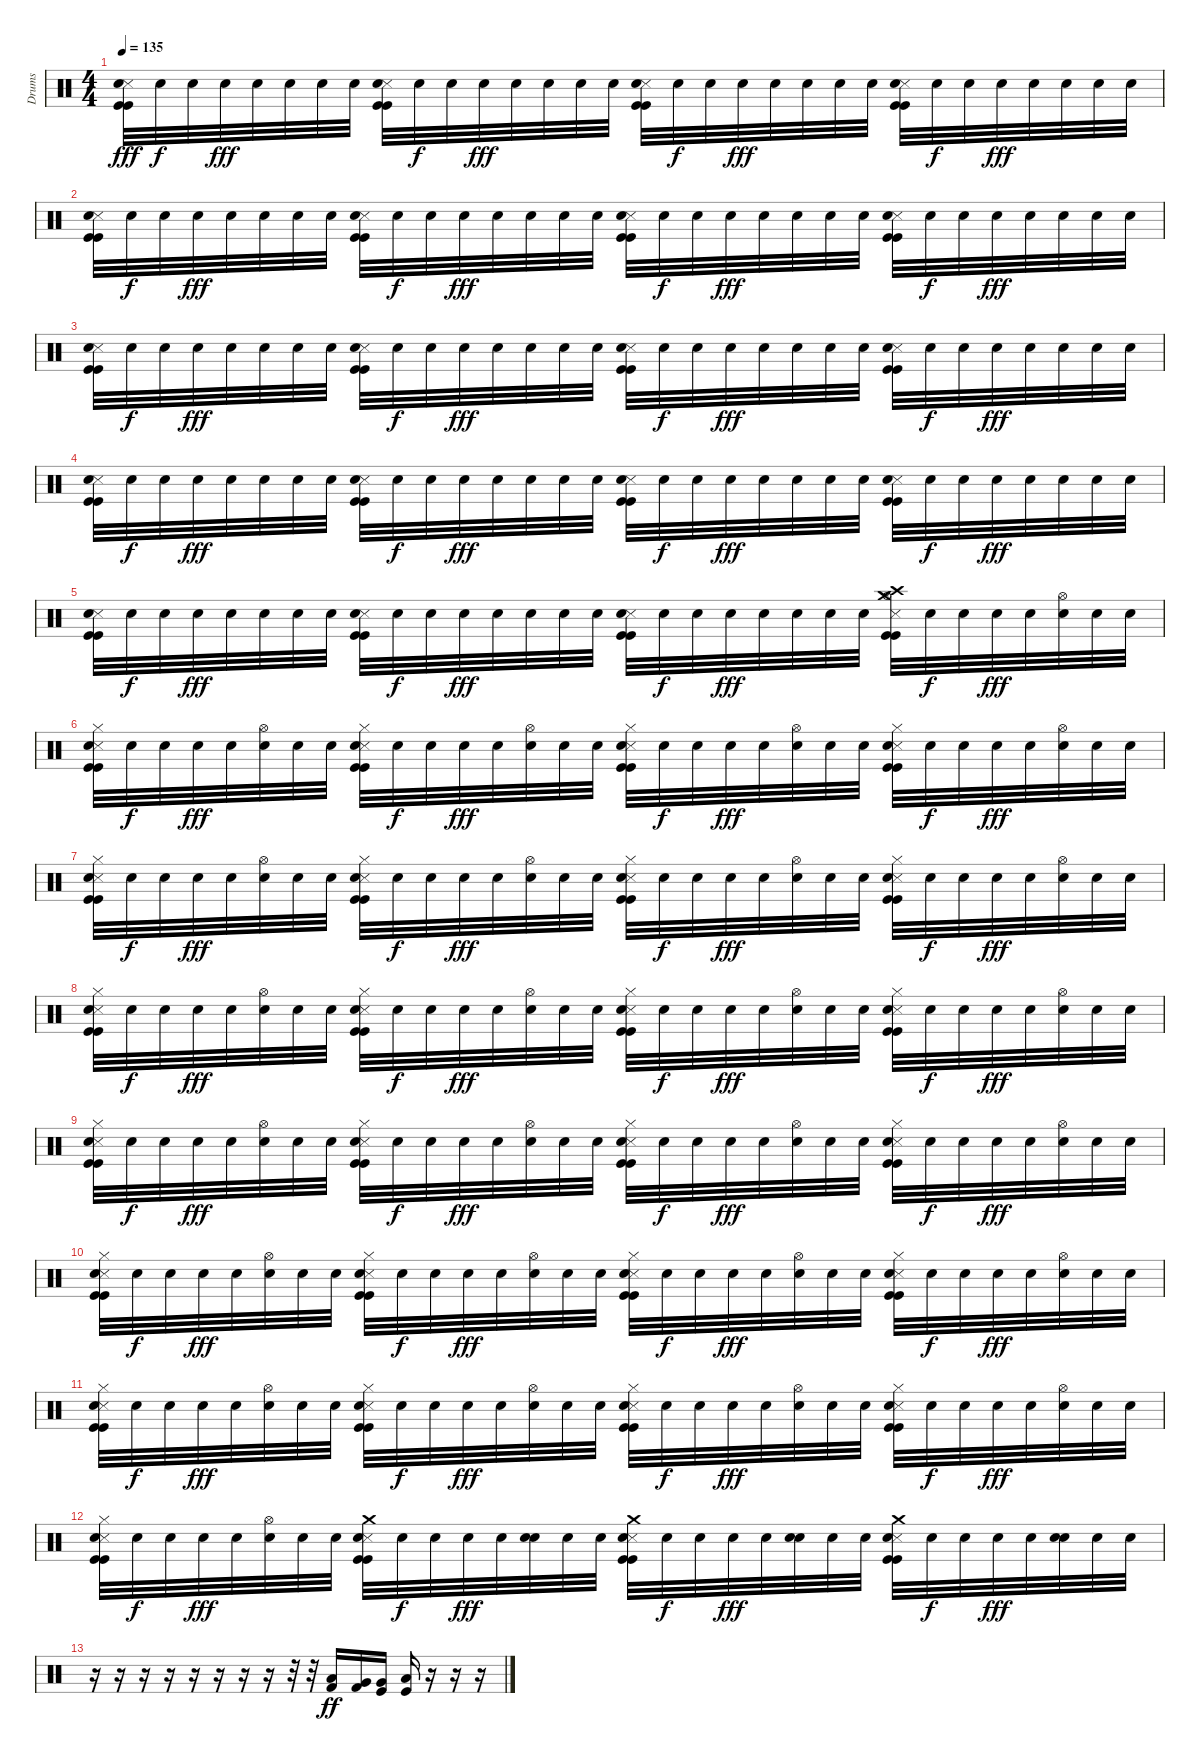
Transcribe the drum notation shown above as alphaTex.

\track ("Drums" "Drums") {instrument percussion bank 24}
\staff
\articulation defaults
\ts (4 4)
\tempo 135
\clef neutral
\ks c
("Metronome (hit)" "Kick (hit)" "Kick (hit)" "Snare (hit) 2").32{dy fff} "Snare (hit)".32{dy f} "Snare (hit)".32 "Snare (hit)".32{dy fff} "Snare (hit)".32 "Snare (hit)".32 "Snare (hit)".32 "Snare (hit)".32 ("Metronome (hit)" "Kick (hit)" "Kick (hit)" "Snare (hit)").32 "Snare (hit)".32{dy f} "Snare (hit)".32 "Snare (hit)".32{dy fff} "Snare (hit)".32 "Snare (hit)".32 "Snare (hit)".32 "Snare (hit)".32 ("Metronome (hit)" "Kick (hit)" "Kick (hit)" "Snare (hit) 2").32 "Snare (hit)".32{dy f} "Snare (hit)".32 "Snare (hit)".32{dy fff} "Snare (hit)".32 "Snare (hit)".32 "Snare (hit)".32 "Snare (hit)".32 ("Metronome (hit)" "Kick (hit)" "Kick (hit)" "Snare (hit)").32 "Snare (hit)".32{dy f} "Snare (hit)".32 "Snare (hit)".32{dy fff} "Snare (hit)".32 "Snare (hit)".32 "Snare (hit)".32 "Snare (hit)".32 |
("Metronome (hit)" "Kick (hit)" "Kick (hit)" "Snare (hit) 2").32 "Snare (hit)".32{dy f} "Snare (hit)".32 "Snare (hit)".32{dy fff} "Snare (hit)".32 "Snare (hit)".32 "Snare (hit)".32 "Snare (hit)".32 ("Metronome (hit)" "Kick (hit)" "Kick (hit)" "Snare (hit)").32 "Snare (hit)".32{dy f} "Snare (hit)".32 "Snare (hit)".32{dy fff} "Snare (hit)".32 "Snare (hit)".32 "Snare (hit)".32 "Snare (hit)".32 ("Metronome (hit)" "Kick (hit)" "Kick (hit)" "Snare (hit) 2").32 "Snare (hit)".32{dy f} "Snare (hit)".32 "Snare (hit)".32{dy fff} "Snare (hit)".32 "Snare (hit)".32 "Snare (hit)".32 "Snare (hit)".32 ("Metronome (hit)" "Kick (hit)" "Kick (hit)" "Snare (hit)").32 "Snare (hit)".32{dy f} "Snare (hit)".32 "Snare (hit)".32{dy fff} "Snare (hit)".32 "Snare (hit)".32 "Snare (hit)".32 "Snare (hit)".32 |
("Metronome (hit)" "Kick (hit)" "Kick (hit)" "Snare (hit) 2").32 "Snare (hit)".32{dy f} "Snare (hit)".32 "Snare (hit)".32{dy fff} "Snare (hit)".32 "Snare (hit)".32 "Snare (hit)".32 "Snare (hit)".32 ("Metronome (hit)" "Kick (hit)" "Kick (hit)" "Snare (hit)").32 "Snare (hit)".32{dy f} "Snare (hit)".32 "Snare (hit)".32{dy fff} "Snare (hit)".32 "Snare (hit)".32 "Snare (hit)".32 "Snare (hit)".32 ("Metronome (hit)" "Kick (hit)" "Kick (hit)" "Snare (hit) 2").32 "Snare (hit)".32{dy f} "Snare (hit)".32 "Snare (hit)".32{dy fff} "Snare (hit)".32 "Snare (hit)".32 "Snare (hit)".32 "Snare (hit)".32 ("Metronome (hit)" "Kick (hit)" "Kick (hit)" "Snare (hit)").32 "Snare (hit)".32{dy f} "Snare (hit)".32 "Snare (hit)".32{dy fff} "Snare (hit)".32 "Snare (hit)".32 "Snare (hit)".32 "Snare (hit)".32 |
("Metronome (hit)" "Kick (hit)" "Kick (hit)" "Snare (hit) 2").32 "Snare (hit)".32{dy f} "Snare (hit)".32 "Snare (hit)".32{dy fff} "Snare (hit)".32 "Snare (hit)".32 "Snare (hit)".32 "Snare (hit)".32 ("Metronome (hit)" "Kick (hit)" "Kick (hit)" "Snare (hit)").32 "Snare (hit)".32{dy f} "Snare (hit)".32 "Snare (hit)".32{dy fff} "Snare (hit)".32 "Snare (hit)".32 "Snare (hit)".32 "Snare (hit)".32 ("Metronome (hit)" "Kick (hit)" "Kick (hit)" "Snare (hit) 2").32 "Snare (hit)".32{dy f} "Snare (hit)".32 "Snare (hit)".32{dy fff} "Snare (hit)".32 "Snare (hit)".32 "Snare (hit)".32 "Snare (hit)".32 ("Metronome (hit)" "Kick (hit)" "Kick (hit)" "Snare (hit)").32 "Snare (hit)".32{dy f} "Snare (hit)".32 "Snare (hit)".32{dy fff} "Snare (hit)".32 "Snare (hit)".32 "Snare (hit)".32 "Snare (hit)".32 |
("Metronome (hit)" "Kick (hit)" "Kick (hit)" "Snare (hit) 2").32 "Snare (hit)".32{dy f} "Snare (hit)".32 "Snare (hit)".32{dy fff} "Snare (hit)".32 "Snare (hit)".32 "Snare (hit)".32 "Snare (hit)".32 ("Metronome (hit)" "Kick (hit)" "Kick (hit)" "Snare (hit)").32 "Snare (hit)".32{dy f} "Snare (hit)".32 "Snare (hit)".32{dy fff} "Snare (hit)".32 "Snare (hit)".32 "Snare (hit)".32 "Snare (hit)".32 ("Metronome (hit)" "Kick (hit)" "Kick (hit)" "Snare (hit) 2").32 "Snare (hit)".32{dy f} "Snare (hit)".32 "Snare (hit)".32{dy fff} "Snare (hit)".32 "Snare (hit)".32 "Snare (hit)".32 "Snare (hit)".32 ("Crash high (hit)" "Metronome (hit)" "Kick (hit)" "Kick (hit)" "Hi-Hat (open)" "Crash medium (hit)").32 "Snare (hit)".32{dy f} "Snare (hit)".32 "Snare (hit)".32{dy fff} "Snare (hit)".32 ("Hi-Hat (open)" "Snare (hit)").32 "Snare (hit)".32 "Snare (hit)".32 |
("Hi-Hat (closed)" "Metronome (hit)" "Kick (hit)" "Kick (hit)" "Snare (hit) 2").32 "Snare (hit)".32{dy f} "Snare (hit)".32 "Snare (hit)".32{dy fff} "Snare (hit)".32 ("Hi-Hat (open)" "Snare (hit)").32 "Snare (hit)".32 "Snare (hit)".32 ("Hi-Hat (closed)" "Metronome (hit)" "Kick (hit)" "Kick (hit)" "Snare (hit)").32 "Snare (hit)".32{dy f} "Snare (hit)".32 "Snare (hit)".32{dy fff} "Snare (hit)".32 ("Hi-Hat (open)" "Snare (hit)").32 "Snare (hit)".32 "Snare (hit)".32 ("Hi-Hat (closed)" "Metronome (hit)" "Kick (hit)" "Kick (hit)" "Snare (hit) 2").32 "Snare (hit)".32{dy f} "Snare (hit)".32 "Snare (hit)".32{dy fff} "Snare (hit)".32 ("Hi-Hat (open)" "Snare (hit)").32 "Snare (hit)".32 "Snare (hit)".32 ("Hi-Hat (closed)" "Metronome (hit)" "Kick (hit)" "Kick (hit)" "Snare (hit)").32 "Snare (hit)".32{dy f} "Snare (hit)".32 "Snare (hit)".32{dy fff} "Snare (hit)".32 ("Hi-Hat (open)" "Snare (hit)").32 "Snare (hit)".32 "Snare (hit)".32 |
("Hi-Hat (closed)" "Metronome (hit)" "Kick (hit)" "Kick (hit)" "Snare (hit) 2").32 "Snare (hit)".32{dy f} "Snare (hit)".32 "Snare (hit)".32{dy fff} "Snare (hit)".32 ("Hi-Hat (open)" "Snare (hit)").32 "Snare (hit)".32 "Snare (hit)".32 ("Hi-Hat (closed)" "Metronome (hit)" "Kick (hit)" "Kick (hit)" "Snare (hit)").32 "Snare (hit)".32{dy f} "Snare (hit)".32 "Snare (hit)".32{dy fff} "Snare (hit)".32 ("Hi-Hat (open)" "Snare (hit)").32 "Snare (hit)".32 "Snare (hit)".32 ("Hi-Hat (closed)" "Metronome (hit)" "Kick (hit)" "Kick (hit)" "Snare (hit) 2").32 "Snare (hit)".32{dy f} "Snare (hit)".32 "Snare (hit)".32{dy fff} "Snare (hit)".32 ("Hi-Hat (open)" "Snare (hit)").32 "Snare (hit)".32 "Snare (hit)".32 ("Hi-Hat (closed)" "Metronome (hit)" "Kick (hit)" "Kick (hit)" "Snare (hit)").32 "Snare (hit)".32{dy f} "Snare (hit)".32 "Snare (hit)".32{dy fff} "Snare (hit)".32 ("Hi-Hat (open)" "Snare (hit)").32 "Snare (hit)".32 "Snare (hit)".32 |
("Hi-Hat (closed)" "Metronome (hit)" "Kick (hit)" "Kick (hit)" "Snare (hit) 2").32 "Snare (hit)".32{dy f} "Snare (hit)".32 "Snare (hit)".32{dy fff} "Snare (hit)".32 ("Hi-Hat (open)" "Snare (hit)").32 "Snare (hit)".32 "Snare (hit)".32 ("Hi-Hat (closed)" "Metronome (hit)" "Kick (hit)" "Kick (hit)" "Snare (hit)").32 "Snare (hit)".32{dy f} "Snare (hit)".32 "Snare (hit)".32{dy fff} "Snare (hit)".32 ("Hi-Hat (open)" "Snare (hit)").32 "Snare (hit)".32 "Snare (hit)".32 ("Hi-Hat (closed)" "Metronome (hit)" "Kick (hit)" "Kick (hit)" "Snare (hit) 2").32 "Snare (hit)".32{dy f} "Snare (hit)".32 "Snare (hit)".32{dy fff} "Snare (hit)".32 ("Hi-Hat (open)" "Snare (hit)").32 "Snare (hit)".32 "Snare (hit)".32 ("Hi-Hat (closed)" "Metronome (hit)" "Kick (hit)" "Kick (hit)" "Snare (hit)").32 "Snare (hit)".32{dy f} "Snare (hit)".32 "Snare (hit)".32{dy fff} "Snare (hit)".32 ("Hi-Hat (open)" "Snare (hit)").32 "Snare (hit)".32 "Snare (hit)".32 |
("Hi-Hat (closed)" "Metronome (hit)" "Kick (hit)" "Kick (hit)" "Snare (hit) 2").32 "Snare (hit)".32{dy f} "Snare (hit)".32 "Snare (hit)".32{dy fff} "Snare (hit)".32 ("Hi-Hat (open)" "Snare (hit)").32 "Snare (hit)".32 "Snare (hit)".32 ("Hi-Hat (closed)" "Metronome (hit)" "Kick (hit)" "Kick (hit)" "Snare (hit)").32 "Snare (hit)".32{dy f} "Snare (hit)".32 "Snare (hit)".32{dy fff} "Snare (hit)".32 ("Hi-Hat (open)" "Snare (hit)").32 "Snare (hit)".32 "Snare (hit)".32 ("Hi-Hat (closed)" "Metronome (hit)" "Kick (hit)" "Kick (hit)" "Snare (hit) 2").32 "Snare (hit)".32{dy f} "Snare (hit)".32 "Snare (hit)".32{dy fff} "Snare (hit)".32 ("Hi-Hat (open)" "Snare (hit)").32 "Snare (hit)".32 "Snare (hit)".32 ("Hi-Hat (closed)" "Metronome (hit)" "Kick (hit)" "Kick (hit)" "Snare (hit)").32 "Snare (hit)".32{dy f} "Snare (hit)".32 "Snare (hit)".32{dy fff} "Snare (hit)".32 ("Hi-Hat (open)" "Snare (hit)").32 "Snare (hit)".32 "Snare (hit)".32 |
("Hi-Hat (closed)" "Metronome (hit)" "Kick (hit)" "Kick (hit)" "Snare (hit) 2").32 "Snare (hit)".32{dy f} "Snare (hit)".32 "Snare (hit)".32{dy fff} "Snare (hit)".32 ("Hi-Hat (open)" "Snare (hit)").32 "Snare (hit)".32 "Snare (hit)".32 ("Hi-Hat (closed)" "Metronome (hit)" "Kick (hit)" "Kick (hit)" "Snare (hit)").32 "Snare (hit)".32{dy f} "Snare (hit)".32 "Snare (hit)".32{dy fff} "Snare (hit)".32 ("Hi-Hat (open)" "Snare (hit)").32 "Snare (hit)".32 "Snare (hit)".32 ("Hi-Hat (closed)" "Metronome (hit)" "Kick (hit)" "Kick (hit)" "Snare (hit) 2").32 "Snare (hit)".32{dy f} "Snare (hit)".32 "Snare (hit)".32{dy fff} "Snare (hit)".32 ("Hi-Hat (open)" "Snare (hit)").32 "Snare (hit)".32 "Snare (hit)".32 ("Hi-Hat (closed)" "Metronome (hit)" "Kick (hit)" "Kick (hit)" "Snare (hit)").32 "Snare (hit)".32{dy f} "Snare (hit)".32 "Snare (hit)".32{dy fff} "Snare (hit)".32 ("Hi-Hat (open)" "Snare (hit)").32 "Snare (hit)".32 "Snare (hit)".32 |
("Hi-Hat (closed)" "Metronome (hit)" "Kick (hit)" "Kick (hit)" "Snare (hit) 2").32 "Snare (hit)".32{dy f} "Snare (hit)".32 "Snare (hit)".32{dy fff} "Snare (hit)".32 ("Hi-Hat (open)" "Snare (hit)").32 "Snare (hit)".32 "Snare (hit)".32 ("Hi-Hat (closed)" "Metronome (hit)" "Kick (hit)" "Kick (hit)" "Snare (hit)").32 "Snare (hit)".32{dy f} "Snare (hit)".32 "Snare (hit)".32{dy fff} "Snare (hit)".32 ("Hi-Hat (open)" "Snare (hit)").32 "Snare (hit)".32 "Snare (hit)".32 ("Hi-Hat (closed)" "Metronome (hit)" "Kick (hit)" "Kick (hit)" "Snare (hit) 2").32 "Snare (hit)".32{dy f} "Snare (hit)".32 "Snare (hit)".32{dy fff} "Snare (hit)".32 ("Hi-Hat (open)" "Snare (hit)").32 "Snare (hit)".32 "Snare (hit)".32 ("Hi-Hat (closed)" "Metronome (hit)" "Kick (hit)" "Kick (hit)" "Snare (hit)").32 "Snare (hit)".32{dy f} "Snare (hit)".32 "Snare (hit)".32{dy fff} "Snare (hit)".32 ("Hi-Hat (open)" "Snare (hit)").32 "Snare (hit)".32 "Snare (hit)".32 |
("Hi-Hat (closed)" "Metronome (hit)" "Kick (hit)" "Kick (hit)" "Snare (hit) 2").32 "Snare (hit)".32{dy f} "Snare (hit)".32 "Snare (hit)".32{dy fff} "Snare (hit)".32 ("Hi-Hat (open)" "Snare (hit)").32 "Snare (hit)".32 "Snare (hit)".32 ("Crash medium (hit)" "Metronome (hit)" "Kick (hit)" "Kick (hit)" "Snare (hit)").32 "Snare (hit)".32{dy f} "Snare (hit)".32 "Snare (hit)".32{dy fff} "Snare (hit)".32 ("Snare (hit)" "Snare (hit)").32 "Snare (hit)".32 "Snare (hit)".32 ("Crash medium (hit)" "Metronome (hit)" "Kick (hit)" "Kick (hit)" "Snare (hit)").32 "Snare (hit)".32{dy f} "Snare (hit)".32 "Snare (hit)".32{dy fff} "Snare (hit)".32 ("Snare (hit)" "Snare (hit)").32 "Snare (hit)".32 "Snare (hit)".32 ("Crash medium (hit)" "Metronome (hit)" "Kick (hit)" "Kick (hit)" "Snare (hit)").32 "Snare (hit)".32{dy f} "Snare (hit)".32 "Snare (hit)".32{dy fff} "Snare (hit)".32 ("Snare (hit)" "Snare (hit)").32 "Snare (hit)".32 "Snare (hit)".32 |
r.16 r.16 r.16 r.16 r.16 r.16 r.16 r.16 r.32 r.32 ("Low Tom (hit)" "Kick (hit) 2").16{dy ff} ("Very Low Tom (hit)" "Kick (hit) 2").16 ("Very Low Tom (hit)" "Kick (hit)").16 ("Low Floor Tom (hit)" "Kick (hit)").16 r.16 r.16 r.16
